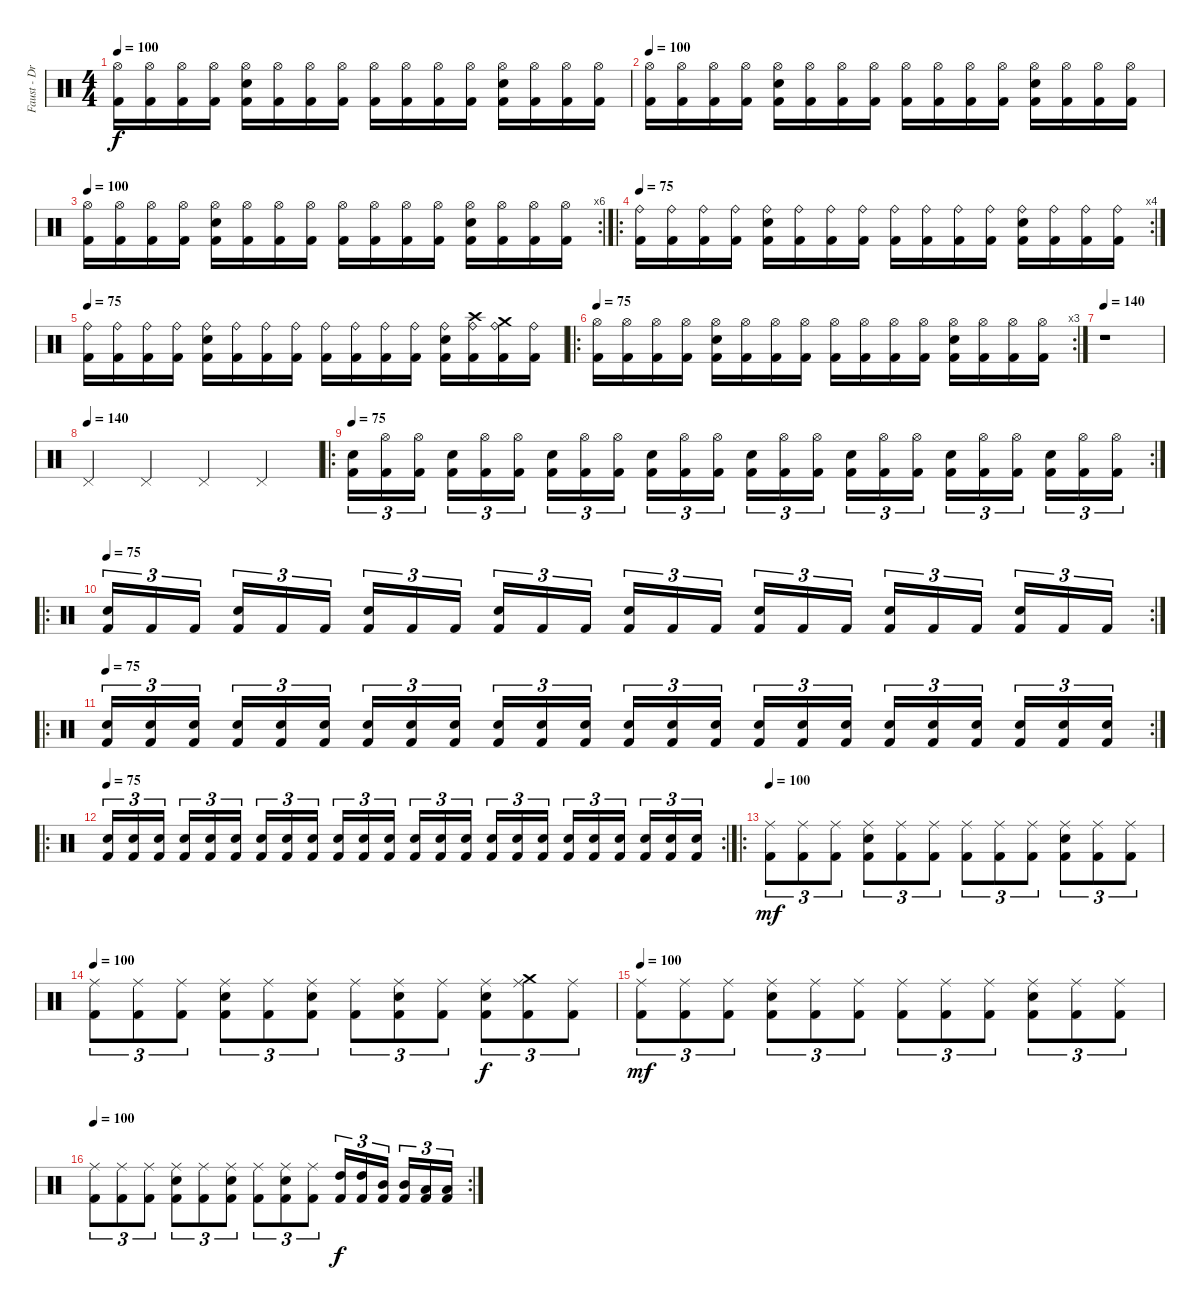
\track ("Faust - Drums" "Faust - Dr") {instrument percussion}
\staff {score}
\articulation defaults
\ts (4 4)
\tempo 100
\clef neutral
\ks c
("Hi-Hat (open)" "Kick (hit) 2").16{dy f} ("Hi-Hat (open)" "Kick (hit) 2").16 ("Hi-Hat (open)" "Kick (hit) 2").16 ("Hi-Hat (open)" "Kick (hit) 2").16 ("Electric Snare (hit)" "Hi-Hat (open)" "Kick (hit) 2").16 ("Hi-Hat (open)" "Kick (hit) 2").16 ("Hi-Hat (open)" "Kick (hit) 2").16 ("Hi-Hat (open)" "Kick (hit) 2").16 ("Hi-Hat (open)" "Kick (hit) 2").16 ("Hi-Hat (open)" "Kick (hit) 2").16 ("Hi-Hat (open)" "Kick (hit) 2").16 ("Hi-Hat (open)" "Kick (hit) 2").16 ("Electric Snare (hit)" "Hi-Hat (open)" "Kick (hit) 2").16 ("Hi-Hat (open)" "Kick (hit) 2").16 ("Hi-Hat (open)" "Kick (hit) 2").16 ("Hi-Hat (open)" "Kick (hit) 2").16 |
\tempo 100
("Hi-Hat (open)" "Kick (hit) 2").16 ("Hi-Hat (open)" "Kick (hit) 2").16 ("Hi-Hat (open)" "Kick (hit) 2").16 ("Hi-Hat (open)" "Kick (hit) 2").16 ("Electric Snare (hit)" "Hi-Hat (open)" "Kick (hit) 2").16 ("Hi-Hat (open)" "Kick (hit) 2").16 ("Hi-Hat (open)" "Kick (hit) 2").16 ("Hi-Hat (open)" "Kick (hit) 2").16 ("Hi-Hat (open)" "Kick (hit) 2").16 ("Hi-Hat (open)" "Kick (hit) 2").16 ("Hi-Hat (open)" "Kick (hit) 2").16 ("Hi-Hat (open)" "Kick (hit) 2").16 ("Electric Snare (hit)" "Hi-Hat (open)" "Kick (hit) 2").16 ("Hi-Hat (open)" "Kick (hit) 2").16 ("Hi-Hat (open)" "Kick (hit) 2").16 ("Hi-Hat (open)" "Kick (hit) 2").16 |
\rc 6
\tempo 100
("Hi-Hat (open)" "Kick (hit) 2").16 ("Hi-Hat (open)" "Kick (hit) 2").16 ("Hi-Hat (open)" "Kick (hit) 2").16 ("Hi-Hat (open)" "Kick (hit) 2").16 ("Electric Snare (hit)" "Hi-Hat (open)" "Kick (hit) 2").16 ("Hi-Hat (open)" "Kick (hit) 2").16 ("Hi-Hat (open)" "Kick (hit) 2").16 ("Hi-Hat (open)" "Kick (hit) 2").16 ("Hi-Hat (open)" "Kick (hit) 2").16 ("Hi-Hat (open)" "Kick (hit) 2").16 ("Hi-Hat (open)" "Kick (hit) 2").16 ("Hi-Hat (open)" "Kick (hit) 2").16 ("Electric Snare (hit)" "Hi-Hat (open)" "Kick (hit) 2").16 ("Hi-Hat (open)" "Kick (hit) 2").16 ("Hi-Hat (open)" "Kick (hit) 2").16 ("Hi-Hat (open)" "Kick (hit) 2").16 |
\ro
\rc 4
\tempo 75
("Ride (bell)" "Kick (hit) 2").16 ("Ride (bell)" "Kick (hit) 2").16 ("Ride (bell)" "Kick (hit) 2").16 ("Ride (bell)" "Kick (hit) 2").16 ("Electric Snare (hit)" "Ride (bell)" "Kick (hit) 2").16 ("Ride (bell)" "Kick (hit) 2").16 ("Ride (bell)" "Kick (hit) 2").16 ("Ride (bell)" "Kick (hit) 2").16 ("Ride (bell)" "Kick (hit) 2").16 ("Ride (bell)" "Kick (hit) 2").16 ("Ride (bell)" "Kick (hit) 2").16 ("Ride (bell)" "Kick (hit) 2").16 ("Electric Snare (hit)" "Ride (bell)" "Kick (hit) 2").16 ("Ride (bell)" "Kick (hit) 2").16 ("Ride (bell)" "Kick (hit) 2").16 ("Ride (bell)" "Kick (hit) 2").16 |
\tempo 75
("Ride (bell)" "Kick (hit) 2").16 ("Ride (bell)" "Kick (hit) 2").16 ("Ride (bell)" "Kick (hit) 2").16 ("Ride (bell)" "Kick (hit) 2").16 ("Electric Snare (hit)" "Ride (bell)" "Kick (hit) 2").16 ("Ride (bell)" "Kick (hit) 2").16 ("Ride (bell)" "Kick (hit) 2").16 ("Ride (bell)" "Kick (hit) 2").16 ("Ride (bell)" "Kick (hit) 2").16 ("Ride (bell)" "Kick (hit) 2").16 ("Ride (bell)" "Kick (hit) 2").16 ("Ride (bell)" "Kick (hit) 2").16 ("Electric Snare (hit)" "Ride (bell)" "Kick (hit) 2").16 ("Crash high (hit)" "Ride (bell)" "Kick (hit) 2").16 ("Crash medium (hit)" "Ride (bell)" "Kick (hit) 2").16 ("Ride (bell)" "Kick (hit) 2").16 |
\ro
\rc 3
\tempo 75
("Hi-Hat (open)" "Kick (hit) 2").16 ("Hi-Hat (open)" "Kick (hit) 2").16 ("Hi-Hat (open)" "Kick (hit) 2").16 ("Hi-Hat (open)" "Kick (hit) 2").16 ("Electric Snare (hit)" "Hi-Hat (open)" "Kick (hit) 2").16 ("Hi-Hat (open)" "Kick (hit) 2").16 ("Hi-Hat (open)" "Kick (hit) 2").16 ("Hi-Hat (open)" "Kick (hit) 2").16 ("Hi-Hat (open)" "Kick (hit) 2").16 ("Hi-Hat (open)" "Kick (hit) 2").16 ("Hi-Hat (open)" "Kick (hit) 2").16 ("Hi-Hat (open)" "Kick (hit) 2").16 ("Electric Snare (hit)" "Hi-Hat (open)" "Kick (hit) 2").16 ("Hi-Hat (open)" "Kick (hit) 2").16 ("Hi-Hat (open)" "Kick (hit) 2").16 ("Hi-Hat (open)" "Kick (hit) 2").16 |
\tempo 140
r.1 |
\tempo (140)
"Pedal Hi-Hat (hit)".4 "Pedal Hi-Hat (hit)".4 "Pedal Hi-Hat (hit)".4 "Pedal Hi-Hat (hit)".4 |
\ro
\rc 2
\tempo 75
("Electric Snare (hit)" "Kick (hit) 2").16{tu (3 2)} ("Hi-Hat (open)" "Kick (hit) 2").16{tu (3 2)} ("Hi-Hat (open)" "Kick (hit) 2").16{tu (3 2)} ("Electric Snare (hit)" "Kick (hit) 2").16{tu (3 2)} ("Hi-Hat (open)" "Kick (hit) 2").16{tu (3 2)} ("Hi-Hat (open)" "Kick (hit) 2").16{tu (3 2)} ("Electric Snare (hit)" "Kick (hit) 2").16{tu (3 2)} ("Hi-Hat (open)" "Kick (hit) 2").16{tu (3 2)} ("Hi-Hat (open)" "Kick (hit) 2").16{tu (3 2)} ("Electric Snare (hit)" "Kick (hit) 2").16{tu (3 2)} ("Hi-Hat (open)" "Kick (hit) 2").16{tu (3 2)} ("Hi-Hat (open)" "Kick (hit) 2").16{tu (3 2)} ("Electric Snare (hit)" "Kick (hit) 2").16{tu (3 2)} ("Hi-Hat (open)" "Kick (hit) 2").16{tu (3 2)} ("Hi-Hat (open)" "Kick (hit) 2").16{tu (3 2)} ("Electric Snare (hit)" "Kick (hit) 2").16{tu (3 2)} ("Hi-Hat (open)" "Kick (hit) 2").16{tu (3 2)} ("Hi-Hat (open)" "Kick (hit) 2").16{tu (3 2)} ("Electric Snare (hit)" "Kick (hit) 2").16{tu (3 2)} ("Hi-Hat (open)" "Kick (hit) 2").16{tu (3 2)} ("Hi-Hat (open)" "Kick (hit) 2").16{tu (3 2)} ("Electric Snare (hit)" "Kick (hit) 2").16{tu (3 2)} ("Hi-Hat (open)" "Kick (hit) 2").16{tu (3 2)} ("Hi-Hat (open)" "Kick (hit) 2").16{tu (3 2)} |
\ro
\rc 2
\tempo 75
("Electric Snare (hit)" "Kick (hit) 2").16{tu (3 2)} "Kick (hit) 2".16{tu (3 2)} "Kick (hit) 2".16{tu (3 2)} ("Electric Snare (hit)" "Kick (hit) 2").16{tu (3 2)} "Kick (hit) 2".16{tu (3 2)} "Kick (hit) 2".16{tu (3 2)} ("Electric Snare (hit)" "Kick (hit) 2").16{tu (3 2)} "Kick (hit) 2".16{tu (3 2)} "Kick (hit) 2".16{tu (3 2)} ("Electric Snare (hit)" "Kick (hit) 2").16{tu (3 2)} "Kick (hit) 2".16{tu (3 2)} "Kick (hit) 2".16{tu (3 2)} ("Electric Snare (hit)" "Kick (hit) 2").16{tu (3 2)} "Kick (hit) 2".16{tu (3 2)} "Kick (hit) 2".16{tu (3 2)} ("Electric Snare (hit)" "Kick (hit) 2").16{tu (3 2)} "Kick (hit) 2".16{tu (3 2)} "Kick (hit) 2".16{tu (3 2)} ("Electric Snare (hit)" "Kick (hit) 2").16{tu (3 2)} "Kick (hit) 2".16{tu (3 2)} "Kick (hit) 2".16{tu (3 2)} ("Electric Snare (hit)" "Kick (hit) 2").16{tu (3 2)} "Kick (hit) 2".16{tu (3 2)} "Kick (hit) 2".16{tu (3 2)} |
\ro
\rc 2
\tempo 75
("Electric Snare (hit)" "Kick (hit) 2").16{tu (3 2)} ("Electric Snare (hit)" "Kick (hit) 2").16{tu (3 2)} ("Electric Snare (hit)" "Kick (hit) 2").16{tu (3 2)} ("Electric Snare (hit)" "Kick (hit) 2").16{tu (3 2)} ("Electric Snare (hit)" "Kick (hit) 2").16{tu (3 2)} ("Electric Snare (hit)" "Kick (hit) 2").16{tu (3 2)} ("Electric Snare (hit)" "Kick (hit) 2").16{tu (3 2)} ("Electric Snare (hit)" "Kick (hit) 2").16{tu (3 2)} ("Electric Snare (hit)" "Kick (hit) 2").16{tu (3 2)} ("Electric Snare (hit)" "Kick (hit) 2").16{tu (3 2)} ("Electric Snare (hit)" "Kick (hit) 2").16{tu (3 2)} ("Electric Snare (hit)" "Kick (hit) 2").16{tu (3 2)} ("Electric Snare (hit)" "Kick (hit) 2").16{tu (3 2)} ("Electric Snare (hit)" "Kick (hit) 2").16{tu (3 2)} ("Electric Snare (hit)" "Kick (hit) 2").16{tu (3 2)} ("Electric Snare (hit)" "Kick (hit) 2").16{tu (3 2)} ("Electric Snare (hit)" "Kick (hit) 2").16{tu (3 2)} ("Electric Snare (hit)" "Kick (hit) 2").16{tu (3 2)} ("Electric Snare (hit)" "Kick (hit) 2").16{tu (3 2)} ("Electric Snare (hit)" "Kick (hit) 2").16{tu (3 2)} ("Electric Snare (hit)" "Kick (hit) 2").16{tu (3 2)} ("Electric Snare (hit)" "Kick (hit) 2").16{tu (3 2)} ("Electric Snare (hit)" "Kick (hit) 2").16{tu (3 2)} ("Electric Snare (hit)" "Kick (hit) 2").16{tu (3 2)} |
\ro
\rc 2
\tempo 75
("Electric Snare (hit)" "Kick (hit) 2").16{tu (3 2)} ("Electric Snare (hit)" "Kick (hit) 2").16{tu (3 2)} ("Electric Snare (hit)" "Kick (hit) 2").16{tu (3 2)} ("Electric Snare (hit)" "Kick (hit) 2").16{tu (3 2)} ("Electric Snare (hit)" "Kick (hit) 2").16{tu (3 2)} ("Electric Snare (hit)" "Kick (hit) 2").16{tu (3 2)} ("Electric Snare (hit)" "Kick (hit) 2").16{tu (3 2)} ("Electric Snare (hit)" "Kick (hit) 2").16{tu (3 2)} ("Electric Snare (hit)" "Kick (hit) 2").16{tu (3 2)} ("Electric Snare (hit)" "Kick (hit) 2").16{tu (3 2)} ("Electric Snare (hit)" "Kick (hit) 2").16{tu (3 2)} ("Electric Snare (hit)" "Kick (hit) 2").16{tu (3 2)} ("Electric Snare (hit)" "Kick (hit) 2").16{tu (3 2)} ("Electric Snare (hit)" "Kick (hit) 2").16{tu (3 2)} ("Electric Snare (hit)" "Kick (hit) 2").16{tu (3 2)} ("Electric Snare (hit)" "Kick (hit) 2").16{tu (3 2)} ("Electric Snare (hit)" "Kick (hit) 2").16{tu (3 2)} ("Electric Snare (hit)" "Kick (hit) 2").16{tu (3 2)} ("Electric Snare (hit)" "Kick (hit) 2").16{tu (3 2)} ("Electric Snare (hit)" "Kick (hit) 2").16{tu (3 2)} ("Electric Snare (hit)" "Kick (hit) 2").16{tu (3 2)} ("Electric Snare (hit)" "Kick (hit) 2").16{tu (3 2)} ("Electric Snare (hit)" "Kick (hit) 2").16{tu (3 2)} ("Electric Snare (hit)" "Kick (hit) 2").16{tu (3 2)} |
\ro
\tempo 100
("Ride (middle)" "Kick (hit) 2").8{tu (3 2) dy mf} ("Ride (middle)" "Kick (hit) 2").8{tu (3 2)} ("Ride (middle)" "Kick (hit) 2").8{tu (3 2)} ("Electric Snare (hit)" "Ride (middle)" "Kick (hit) 2").8{tu (3 2)} ("Ride (middle)" "Kick (hit) 2").8{tu (3 2)} ("Ride (middle)" "Kick (hit) 2").8{tu (3 2)} ("Ride (middle)" "Kick (hit) 2").8{tu (3 2)} ("Ride (middle)" "Kick (hit) 2").8{tu (3 2)} ("Ride (middle)" "Kick (hit) 2").8{tu (3 2)} ("Electric Snare (hit)" "Ride (middle)" "Kick (hit) 2").8{tu (3 2)} ("Ride (middle)" "Kick (hit) 2").8{tu (3 2)} ("Ride (middle)" "Kick (hit) 2").8{tu (3 2)} |
\tempo 100
("Ride (middle)" "Kick (hit) 2").8{tu (3 2)} ("Ride (middle)" "Kick (hit) 2").8{tu (3 2)} ("Ride (middle)" "Kick (hit) 2").8{tu (3 2)} ("Electric Snare (hit)" "Ride (middle)" "Kick (hit) 2").8{tu (3 2)} ("Ride (middle)" "Kick (hit) 2").8{tu (3 2)} ("Electric Snare (hit)" "Ride (middle)" "Kick (hit) 2").8{tu (3 2)} ("Ride (middle)" "Kick (hit) 2").8{tu (3 2)} ("Electric Snare (hit)" "Ride (middle)" "Kick (hit) 2").8{tu (3 2)} ("Ride (middle)" "Kick (hit) 2").8{tu (3 2)} ("Electric Snare (hit)" "Ride (middle)" "Kick (hit) 2").8{tu (3 2) dy f} ("Crash medium (hit)" "Ride (middle)" "Kick (hit) 2").8{tu (3 2)} ("Ride (middle)" "Kick (hit) 2").8{tu (3 2)} |
\tempo 100
("Ride (middle)" "Kick (hit) 2").8{tu (3 2) dy mf} ("Ride (middle)" "Kick (hit) 2").8{tu (3 2)} ("Ride (middle)" "Kick (hit) 2").8{tu (3 2)} ("Electric Snare (hit)" "Ride (middle)" "Kick (hit) 2").8{tu (3 2)} ("Ride (middle)" "Kick (hit) 2").8{tu (3 2)} ("Ride (middle)" "Kick (hit) 2").8{tu (3 2)} ("Ride (middle)" "Kick (hit) 2").8{tu (3 2)} ("Ride (middle)" "Kick (hit) 2").8{tu (3 2)} ("Ride (middle)" "Kick (hit) 2").8{tu (3 2)} ("Electric Snare (hit)" "Ride (middle)" "Kick (hit) 2").8{tu (3 2)} ("Ride (middle)" "Kick (hit) 2").8{tu (3 2)} ("Ride (middle)" "Kick (hit) 2").8{tu (3 2)} |
\rc 2
\tempo 100
("Ride (middle)" "Kick (hit) 2").8{tu (3 2)} ("Ride (middle)" "Kick (hit) 2").8{tu (3 2)} ("Ride (middle)" "Kick (hit) 2").8{tu (3 2)} ("Electric Snare (hit)" "Ride (middle)" "Kick (hit) 2").8{tu (3 2)} ("Ride (middle)" "Kick (hit) 2").8{tu (3 2)} ("Electric Snare (hit)" "Ride (middle)" "Kick (hit) 2").8{tu (3 2)} ("Ride (middle)" "Kick (hit) 2").8{tu (3 2)} ("Electric Snare (hit)" "Ride (middle)" "Kick (hit) 2").8{tu (3 2)} ("Ride (middle)" "Kick (hit) 2").8{tu (3 2)} ("High Tom (hit)" "Kick (hit) 2").16{tu (3 2) dy f} ("High Tom (hit)" "Kick (hit) 2").16{tu (3 2)} ("Mid Tom (hit)" "Kick (hit) 2").16{tu (3 2)} ("Mid Tom (hit)" "Kick (hit) 2").16{tu (3 2)} ("Low Tom (hit)" "Kick (hit) 2").16{tu (3 2)} ("Low Tom (hit)" "Kick (hit) 2").16{tu (3 2)}
